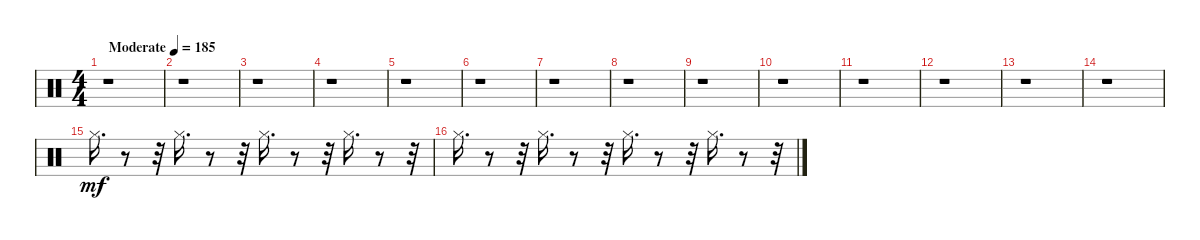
\track "" {instrument percussion}
\staff {score}
\articulation defaults
\ts (4 4)
\tempo (185 "Moderate")
\clef neutral
\ks c
r.1{dy mf} |
r.1 |
r.1 |
r.1 |
r.1 |
r.1 |
r.1 |
r.1 |
r.1 |
r.1 |
r.1 |
r.1 |
r.1 |
r.1 |
"Hi-Hat (closed)".16{d} r.8 r.32 "Hi-Hat (closed)".16{d} r.8 r.32 "Hi-Hat (closed)".16{d} r.8 r.32 "Hi-Hat (closed)".16{d} r.8 r.32 |
"Hi-Hat (closed)".16{d} r.8 r.32 "Hi-Hat (closed)".16{d} r.8 r.32 "Hi-Hat (closed)".16{d} r.8 r.32 "Hi-Hat (closed)".16{d} r.8 r.32
